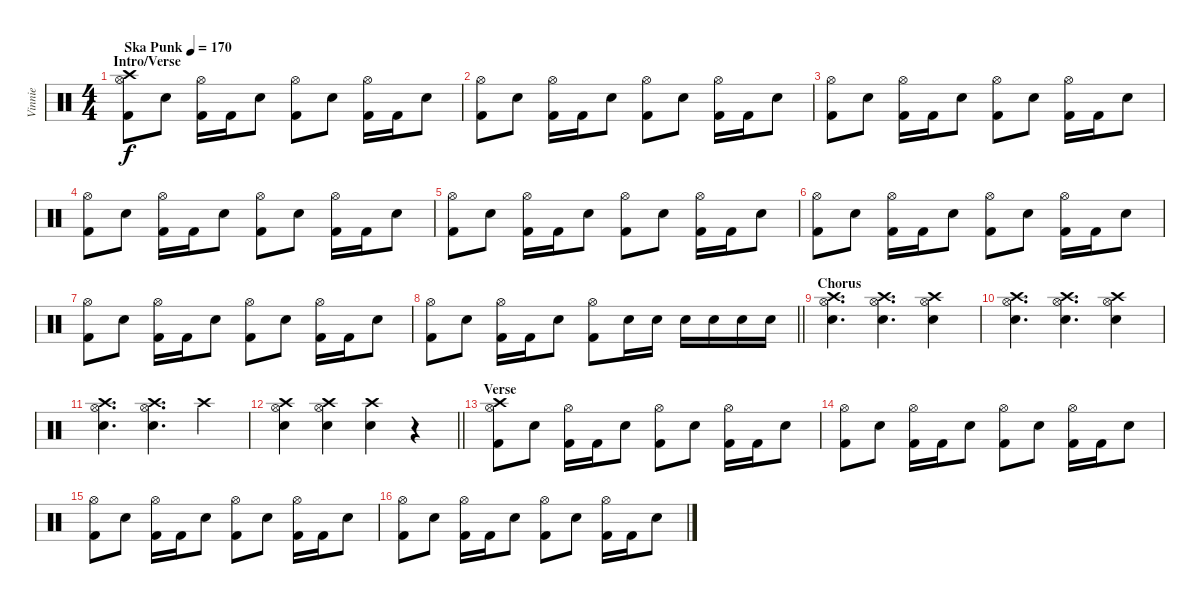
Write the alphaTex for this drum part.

\track ("Vinnie" "Vinnie") {instrument percussion}
\staff {score}
\articulation defaults
\ts (4 4)
\section ("" "Intro/Verse")
\tempo (170 "Ska Punk")
\clef neutral
\ks c
("Crash high (hit)" "Hi-Hat (open)" "Kick (hit) 2").8{dy f} "Electric Snare (hit)".8 ("Hi-Hat (open)" "Kick (hit) 2").16 "Kick (hit) 2".16 "Electric Snare (hit)".8 ("Hi-Hat (open)" "Kick (hit) 2").8 "Electric Snare (hit)".8 ("Hi-Hat (open)" "Kick (hit) 2").16 "Kick (hit) 2".16 "Electric Snare (hit)".8 |
("Hi-Hat (open)" "Kick (hit) 2").8 "Electric Snare (hit)".8 ("Hi-Hat (open)" "Kick (hit) 2").16 "Kick (hit) 2".16 "Electric Snare (hit)".8 ("Hi-Hat (open)" "Kick (hit) 2").8 "Electric Snare (hit)".8 ("Hi-Hat (open)" "Kick (hit) 2").16 "Kick (hit) 2".16 "Electric Snare (hit)".8 |
("Hi-Hat (open)" "Kick (hit) 2").8 "Electric Snare (hit)".8 ("Hi-Hat (open)" "Kick (hit) 2").16 "Kick (hit) 2".16 "Electric Snare (hit)".8 ("Hi-Hat (open)" "Kick (hit) 2").8 "Electric Snare (hit)".8 ("Hi-Hat (open)" "Kick (hit) 2").16 "Kick (hit) 2".16 "Electric Snare (hit)".8 |
("Hi-Hat (open)" "Kick (hit) 2").8 "Electric Snare (hit)".8 ("Hi-Hat (open)" "Kick (hit) 2").16 "Kick (hit) 2".16 "Electric Snare (hit)".8 ("Hi-Hat (open)" "Kick (hit) 2").8 "Electric Snare (hit)".8 ("Hi-Hat (open)" "Kick (hit) 2").16 "Kick (hit) 2".16 "Electric Snare (hit)".8 |
("Hi-Hat (open)" "Kick (hit) 2").8 "Electric Snare (hit)".8 ("Hi-Hat (open)" "Kick (hit) 2").16 "Kick (hit) 2".16 "Electric Snare (hit)".8 ("Hi-Hat (open)" "Kick (hit) 2").8 "Electric Snare (hit)".8 ("Hi-Hat (open)" "Kick (hit) 2").16 "Kick (hit) 2".16 "Electric Snare (hit)".8 |
("Hi-Hat (open)" "Kick (hit) 2").8 "Electric Snare (hit)".8 ("Hi-Hat (open)" "Kick (hit) 2").16 "Kick (hit) 2".16 "Electric Snare (hit)".8 ("Hi-Hat (open)" "Kick (hit) 2").8 "Electric Snare (hit)".8 ("Hi-Hat (open)" "Kick (hit) 2").16 "Kick (hit) 2".16 "Electric Snare (hit)".8 |
("Hi-Hat (open)" "Kick (hit) 2").8 "Electric Snare (hit)".8 ("Hi-Hat (open)" "Kick (hit) 2").16 "Kick (hit) 2".16 "Electric Snare (hit)".8 ("Hi-Hat (open)" "Kick (hit) 2").8 "Electric Snare (hit)".8 ("Hi-Hat (open)" "Kick (hit) 2").16 "Kick (hit) 2".16 "Electric Snare (hit)".8 |
\barLineRight lightlight
("Hi-Hat (open)" "Kick (hit) 2").8 "Electric Snare (hit)".8 ("Hi-Hat (open)" "Kick (hit) 2").16 "Kick (hit) 2".16 "Electric Snare (hit)".8 ("Hi-Hat (open)" "Kick (hit) 2").8 "Electric Snare (hit)".16 "Electric Snare (hit)".16 "Electric Snare (hit)".16 "Electric Snare (hit)".16 "Electric Snare (hit)".16 "Electric Snare (hit)".16 |
\section ("" "Chorus")
("Crash high (hit)" "Hi-Hat (open)" "Electric Snare (hit)").4{d} ("Crash high (hit)" "Hi-Hat (open)" "Electric Snare (hit)").4{d} ("Crash high (hit)" "Hi-Hat (open)" "Electric Snare (hit)").4 |
("Crash high (hit)" "Hi-Hat (open)" "Electric Snare (hit)").4{d} ("Crash high (hit)" "Hi-Hat (open)" "Electric Snare (hit)").4{d} ("Crash high (hit)" "Hi-Hat (open)" "Electric Snare (hit)").4 |
("Crash high (hit)" "Hi-Hat (open)" "Electric Snare (hit)").4{d} ("Crash high (hit)" "Hi-Hat (open)" "Electric Snare (hit)").4{d} "Crash high (hit)".4 |
\barLineRight lightlight
("Crash high (hit)" "Hi-Hat (open)" "Electric Snare (hit)").4 ("Crash high (hit)" "Hi-Hat (open)" "Electric Snare (hit)").4 ("Crash high (hit)" "Electric Snare (hit)").4 r.4 |
\section ("" "Verse")
("Crash high (hit)" "Hi-Hat (open)" "Kick (hit) 2").8 "Electric Snare (hit)".8 ("Hi-Hat (open)" "Kick (hit) 2").16 "Kick (hit) 2".16 "Electric Snare (hit)".8 ("Hi-Hat (open)" "Kick (hit) 2").8 "Electric Snare (hit)".8 ("Hi-Hat (open)" "Kick (hit) 2").16 "Kick (hit) 2".16 "Electric Snare (hit)".8 |
("Hi-Hat (open)" "Kick (hit) 2").8 "Electric Snare (hit)".8 ("Hi-Hat (open)" "Kick (hit) 2").16 "Kick (hit) 2".16 "Electric Snare (hit)".8 ("Hi-Hat (open)" "Kick (hit) 2").8 "Electric Snare (hit)".8 ("Hi-Hat (open)" "Kick (hit) 2").16 "Kick (hit) 2".16 "Electric Snare (hit)".8 |
("Hi-Hat (open)" "Kick (hit) 2").8 "Electric Snare (hit)".8 ("Hi-Hat (open)" "Kick (hit) 2").16 "Kick (hit) 2".16 "Electric Snare (hit)".8 ("Hi-Hat (open)" "Kick (hit) 2").8 "Electric Snare (hit)".8 ("Hi-Hat (open)" "Kick (hit) 2").16 "Kick (hit) 2".16 "Electric Snare (hit)".8 |
("Hi-Hat (open)" "Kick (hit) 2").8 "Electric Snare (hit)".8 ("Hi-Hat (open)" "Kick (hit) 2").16 "Kick (hit) 2".16 "Electric Snare (hit)".8 ("Hi-Hat (open)" "Kick (hit) 2").8 "Electric Snare (hit)".8 ("Hi-Hat (open)" "Kick (hit) 2").16 "Kick (hit) 2".16 "Electric Snare (hit)".8
